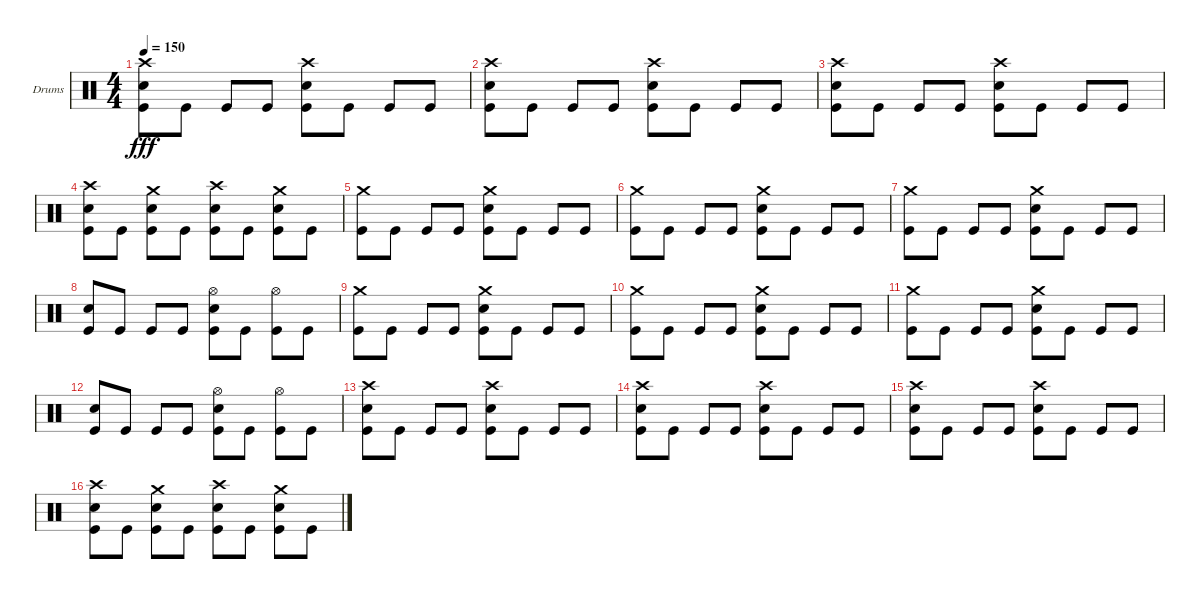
\bracketExtendMode groupsimilarinstruments
\firstSystemTrackNameOrientation horizontal
\otherSystemsTrackNameOrientation horizontal
\track ("Corey" "Drums") {instrument percussion}
\staff {score}
\articulation defaults
\ts (4 4)
\tempo 150
\clef neutral
\ks c
("Kick (hit)" "Snare (hit) 2" "Crash high (hit)").8{dy fff} "Kick (hit)".8 "Kick (hit)".8 "Kick (hit)".8 ("Kick (hit)" "Snare (hit) 2" "Crash high (hit)").8 "Kick (hit)".8 "Kick (hit)".8 "Kick (hit)".8 |
("Kick (hit)" "Snare (hit) 2" "Crash high (hit)").8 "Kick (hit)".8 "Kick (hit)".8 "Kick (hit)".8 ("Kick (hit)" "Snare (hit) 2" "Crash high (hit)").8 "Kick (hit)".8 "Kick (hit)".8 "Kick (hit)".8 |
("Kick (hit)" "Snare (hit) 2" "Crash high (hit)").8 "Kick (hit)".8 "Kick (hit)".8 "Kick (hit)".8 ("Kick (hit)" "Snare (hit) 2" "Crash high (hit)").8 "Kick (hit)".8 "Kick (hit)".8 "Kick (hit)".8 |
("Kick (hit)" "Snare (hit) 2" "Crash high (hit)").8 "Kick (hit)".8 ("Kick (hit)" "Snare (hit) 2" "Crash medium (hit)").8 "Kick (hit)".8 ("Kick (hit)" "Snare (hit) 2" "Crash high (hit)").8 "Kick (hit)".8 ("Kick (hit)" "Snare (hit) 2" "Crash medium (hit)").8 "Kick (hit)".8 |
("Kick (hit)" "Crash medium (hit)").8 "Kick (hit)".8 "Kick (hit)".8 "Kick (hit)".8 ("Kick (hit)" "Snare (hit) 2" "Crash medium (hit)").8 "Kick (hit)".8 "Kick (hit)".8 "Kick (hit)".8 |
("Kick (hit)" "Crash medium (hit)").8 "Kick (hit)".8 "Kick (hit)".8 "Kick (hit)".8 ("Kick (hit)" "Snare (hit) 2" "Crash medium (hit)").8 "Kick (hit)".8 "Kick (hit)".8 "Kick (hit)".8 |
("Kick (hit)" "Crash medium (hit)").8 "Kick (hit)".8 "Kick (hit)".8 "Kick (hit)".8 ("Kick (hit)" "Snare (hit) 2" "Crash medium (hit)").8 "Kick (hit)".8 "Kick (hit)".8 "Kick (hit)".8 |
("Kick (hit)" "Snare (hit) 2").8 "Kick (hit)".8 "Kick (hit)".8 "Kick (hit)".8 ("Kick (hit)" "Snare (hit) 2" "Hi-Hat (open)").8 "Kick (hit)".8 ("Kick (hit)" "Hi-Hat (open)").8 "Kick (hit)".8 |
("Kick (hit)" "Crash medium (hit)").8 "Kick (hit)".8 "Kick (hit)".8 "Kick (hit)".8 ("Kick (hit)" "Snare (hit) 2" "Crash medium (hit)").8 "Kick (hit)".8 "Kick (hit)".8 "Kick (hit)".8 |
("Kick (hit)" "Crash medium (hit)").8 "Kick (hit)".8 "Kick (hit)".8 "Kick (hit)".8 ("Kick (hit)" "Snare (hit) 2" "Crash medium (hit)").8 "Kick (hit)".8 "Kick (hit)".8 "Kick (hit)".8 |
("Kick (hit)" "Crash medium (hit)").8 "Kick (hit)".8 "Kick (hit)".8 "Kick (hit)".8 ("Kick (hit)" "Snare (hit) 2" "Crash medium (hit)").8 "Kick (hit)".8 "Kick (hit)".8 "Kick (hit)".8 |
("Kick (hit)" "Snare (hit) 2").8 "Kick (hit)".8 "Kick (hit)".8 "Kick (hit)".8 ("Kick (hit)" "Snare (hit) 2" "Hi-Hat (open)").8 "Kick (hit)".8 ("Kick (hit)" "Hi-Hat (open)").8 "Kick (hit)".8 |
("Kick (hit)" "Snare (hit) 2" "Crash high (hit)").8 "Kick (hit)".8 "Kick (hit)".8 "Kick (hit)".8 ("Kick (hit)" "Snare (hit) 2" "Crash high (hit)").8 "Kick (hit)".8 "Kick (hit)".8 "Kick (hit)".8 |
("Kick (hit)" "Snare (hit) 2" "Crash high (hit)").8 "Kick (hit)".8 "Kick (hit)".8 "Kick (hit)".8 ("Kick (hit)" "Snare (hit) 2" "Crash high (hit)").8 "Kick (hit)".8 "Kick (hit)".8 "Kick (hit)".8 |
("Kick (hit)" "Snare (hit) 2" "Crash high (hit)").8 "Kick (hit)".8 "Kick (hit)".8 "Kick (hit)".8 ("Kick (hit)" "Snare (hit) 2" "Crash high (hit)").8 "Kick (hit)".8 "Kick (hit)".8 "Kick (hit)".8 |
("Kick (hit)" "Snare (hit) 2" "Crash high (hit)").8 "Kick (hit)".8 ("Kick (hit)" "Snare (hit) 2" "Crash medium (hit)").8 "Kick (hit)".8 ("Kick (hit)" "Snare (hit) 2" "Crash high (hit)").8 "Kick (hit)".8 ("Kick (hit)" "Snare (hit) 2" "Crash medium (hit)").8 "Kick (hit)".8
